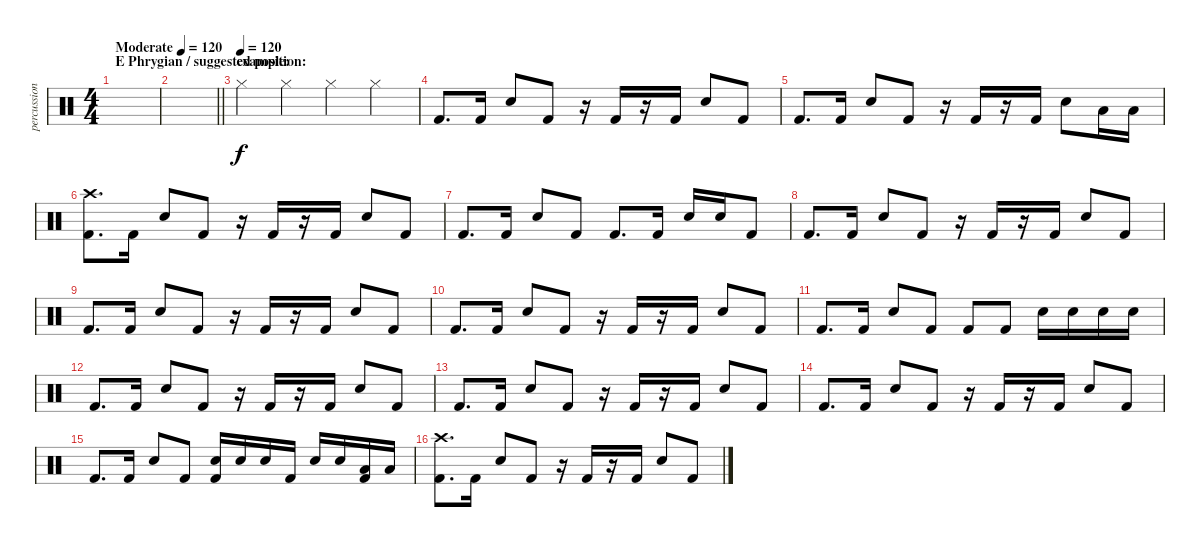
\track ("percussion" "percussion") {instrument percussion}
\staff {score}
\articulation defaults
\ts (4 4)
\section ("" "E Phrygian / suggested position:")
\tempo (120 "Moderate")
\tempo 60
\tempo (120 "Moderate")
\clef neutral
\ks c
|
\barLineRight lightlight
|
\section ("" "example:")
\tempo (120)
"Hi-Hat (closed)".4 "Hi-Hat (closed)".4 "Hi-Hat (closed)".4 "Hi-Hat (closed)".4 |
"Kick (hit) 2".8{d} "Kick (hit) 2".16 "Snare (hit) 2".8 "Kick (hit) 2".8 r.16 "Kick (hit) 2".16 r.16 "Kick (hit) 2".16 "Snare (hit) 2".8 "Kick (hit) 2".8 |
"Kick (hit) 2".8{d} "Kick (hit) 2".16 "Snare (hit) 2".8 "Kick (hit) 2".8 r.16 "Kick (hit) 2".16 r.16 "Kick (hit) 2".16 "Snare (hit) 2".8 "Low Tom (hit)".16 "Low Tom (hit)".16 |
("Crash high (hit)" "Kick (hit) 2").8{d} "Kick (hit) 2".16 "Snare (hit) 2".8 "Kick (hit) 2".8 r.16 "Kick (hit) 2".16 r.16 "Kick (hit) 2".16 "Snare (hit) 2".8 "Kick (hit) 2".8 |
"Kick (hit) 2".8{d} "Kick (hit) 2".16 "Snare (hit) 2".8 "Kick (hit) 2".8 "Kick (hit) 2".8{d} "Kick (hit) 2".16 "Snare (hit) 2".16 "Snare (hit) 2".16 "Kick (hit) 2".8 |
"Kick (hit) 2".8{d} "Kick (hit) 2".16 "Snare (hit) 2".8 "Kick (hit) 2".8 r.16 "Kick (hit) 2".16 r.16 "Kick (hit) 2".16 "Snare (hit) 2".8 "Kick (hit) 2".8 |
"Kick (hit) 2".8{d} "Kick (hit) 2".16 "Snare (hit) 2".8 "Kick (hit) 2".8 r.16 "Kick (hit) 2".16 r.16 "Kick (hit) 2".16 "Snare (hit) 2".8 "Kick (hit) 2".8 |
"Kick (hit) 2".8{d} "Kick (hit) 2".16 "Snare (hit) 2".8 "Kick (hit) 2".8 r.16 "Kick (hit) 2".16 r.16 "Kick (hit) 2".16 "Snare (hit) 2".8 "Kick (hit) 2".8 |
"Kick (hit) 2".8{d} "Kick (hit) 2".16 "Snare (hit) 2".8 "Kick (hit) 2".8 "Kick (hit) 2".8 "Kick (hit) 2".8 "Snare (hit) 2".16 "Snare (hit) 2".16 "Snare (hit) 2".16 "Snare (hit) 2".16 |
"Kick (hit) 2".8{d} "Kick (hit) 2".16 "Snare (hit) 2".8 "Kick (hit) 2".8 r.16 "Kick (hit) 2".16 r.16 "Kick (hit) 2".16 "Snare (hit) 2".8 "Kick (hit) 2".8 |
"Kick (hit) 2".8{d} "Kick (hit) 2".16 "Snare (hit) 2".8 "Kick (hit) 2".8 r.16 "Kick (hit) 2".16 r.16 "Kick (hit) 2".16 "Snare (hit) 2".8 "Kick (hit) 2".8 |
"Kick (hit) 2".8{d} "Kick (hit) 2".16 "Snare (hit) 2".8 "Kick (hit) 2".8 r.16 "Kick (hit) 2".16 r.16 "Kick (hit) 2".16 "Snare (hit) 2".8 "Kick (hit) 2".8 |
"Kick (hit) 2".8{d} "Kick (hit) 2".16 "Snare (hit) 2".8 "Kick (hit) 2".8 ("Snare (hit) 2" "Kick (hit) 2").16 "Snare (hit) 2".16 "Snare (hit) 2".16 "Kick (hit) 2".16 "Snare (hit) 2".16 "Snare (hit) 2".16 ("Low Tom (hit)" "Kick (hit) 2").16 "Low Tom (hit)".16 |
("Crash high (hit)" "Kick (hit) 2").8{d} "Kick (hit) 2".16 "Snare (hit) 2".8 "Kick (hit) 2".8 r.16 "Kick (hit) 2".16 r.16 "Kick (hit) 2".16 "Snare (hit) 2".8 "Kick (hit) 2".8
